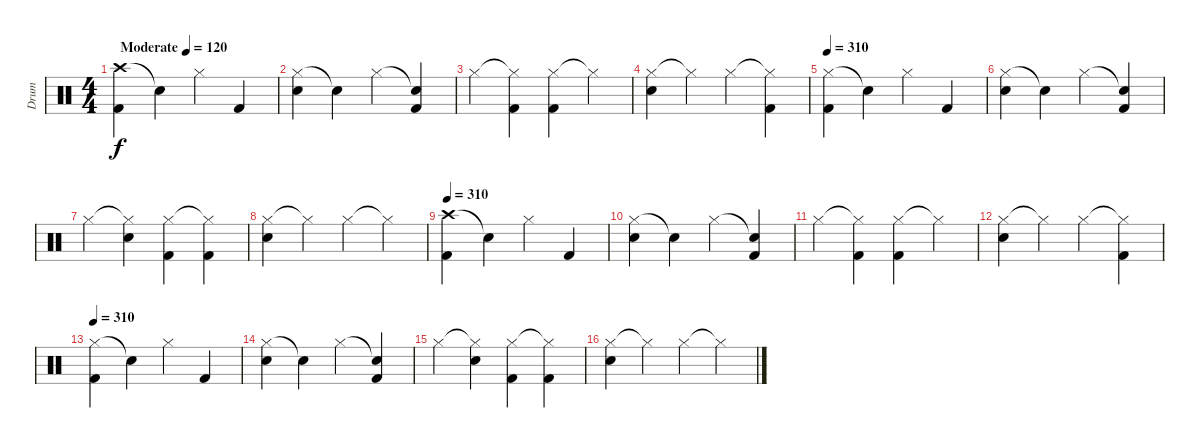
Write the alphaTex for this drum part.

\track ("Drum" "Drum") {instrument percussion}
\staff {score}
\articulation defaults
\ts (4 4)
\tempo (120 "Moderate")
\tempo 310
\tempo (120 "Moderate")
\clef neutral
\ks c
("Crash high (hit)" "Kick (hit) 2").4{dy f} "Snare (hit)"{t}.4 "Hi-Hat (closed)".4 "Kick (hit) 2".4 |
("Hi-Hat (closed)" "Electric Snare (hit)").4 "Snare (hit)"{t}.4 "Hi-Hat (closed)".4 ("Snare (hit)"{t} "Kick (hit) 2").4 |
"Hi-Hat (closed)".4 ("Hi-Hat (closed)"{t} "Kick (hit) 2").4 ("Hi-Hat (closed)" "Kick (hit) 2").4 "Hi-Hat (closed)"{t}.4 |
("Hi-Hat (closed)" "Electric Snare (hit)").4 "Hi-Hat (closed)"{t}.4 "Hi-Hat (closed)".4 ("Hi-Hat (closed)"{t} "Kick (hit) 2").4 |
\tempo 310
("Hi-Hat (closed)" "Kick (hit) 2").4 "Snare (hit)"{t}.4 "Hi-Hat (closed)".4 "Kick (hit) 2".4 |
("Hi-Hat (closed)" "Electric Snare (hit)").4 "Snare (hit)"{t}.4 "Hi-Hat (closed)".4 ("Snare (hit)"{t} "Kick (hit) 2").4 |
"Hi-Hat (closed)".4 ("Hi-Hat (closed)"{t} "Electric Snare (hit)").4 ("Hi-Hat (closed)" "Kick (hit) 2").4 ("Hi-Hat (closed)"{t} "Kick (hit) 2").4 |
("Hi-Hat (closed)" "Electric Snare (hit)").4 "Hi-Hat (closed)"{t}.4 "Hi-Hat (closed)".4 "Hi-Hat (closed)"{t}.4 |
\tempo 310
("Crash high (hit)" "Kick (hit) 2").4 "Snare (hit)"{t}.4 "Hi-Hat (closed)".4 "Kick (hit) 2".4 |
("Hi-Hat (closed)" "Electric Snare (hit)").4 "Snare (hit)"{t}.4 "Hi-Hat (closed)".4 ("Snare (hit)"{t} "Kick (hit) 2").4 |
"Hi-Hat (closed)".4 ("Hi-Hat (closed)"{t} "Kick (hit) 2").4 ("Hi-Hat (closed)" "Kick (hit) 2").4 "Hi-Hat (closed)"{t}.4 |
("Hi-Hat (closed)" "Electric Snare (hit)").4 "Hi-Hat (closed)"{t}.4 "Hi-Hat (closed)".4 ("Hi-Hat (closed)"{t} "Kick (hit) 2").4 |
\tempo 310
("Hi-Hat (closed)" "Kick (hit) 2").4 "Snare (hit)"{t}.4 "Hi-Hat (closed)".4 "Kick (hit) 2".4 |
("Hi-Hat (closed)" "Electric Snare (hit)").4 "Snare (hit)"{t}.4 "Hi-Hat (closed)".4 ("Snare (hit)"{t} "Kick (hit) 2").4 |
"Hi-Hat (closed)".4 ("Hi-Hat (closed)"{t} "Electric Snare (hit)").4 ("Hi-Hat (closed)" "Kick (hit) 2").4 ("Hi-Hat (closed)"{t} "Kick (hit) 2").4 |
("Hi-Hat (closed)" "Electric Snare (hit)").4 "Hi-Hat (closed)"{t}.4 "Hi-Hat (closed)".4 "Hi-Hat (closed)"{t}.4
